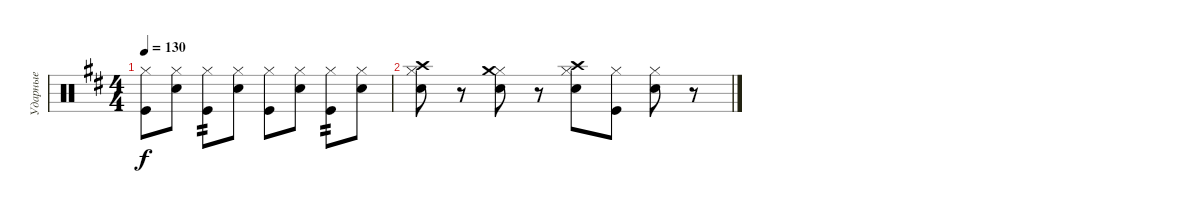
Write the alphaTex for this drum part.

\track ("Ударные" "Ударные") {instrument percussion}
\staff {score}
\articulation defaults
\ts (4 4)
\tempo 130
\clef neutral
\ks bminor
("Hi-Hat (closed)" "Kick (hit)").8{dy f} ("Hi-Hat (closed)" "Electric Snare (hit)").8 ("Hi-Hat (closed)" "Kick (hit)").8{tp 2} ("Hi-Hat (closed)" "Electric Snare (hit)").8 ("Hi-Hat (closed)" "Kick (hit)").8 ("Hi-Hat (closed)" "Electric Snare (hit)").8 ("Hi-Hat (closed)" "Kick (hit)").8{tp 2} ("Hi-Hat (closed)" "Electric Snare (hit)").8 |
("Hi-Hat (closed)" "Crash high (hit)" "Electric Snare (hit)").8 r.8 ("Hi-Hat (closed)" "Crash medium (hit)" "Electric Snare (hit)").8 r.8 ("Hi-Hat (closed)" "Crash high (hit)" "Electric Snare (hit)").8 ("Hi-Hat (closed)" "Kick (hit)").8 ("Hi-Hat (closed)" "Electric Snare (hit)").8 r.8
